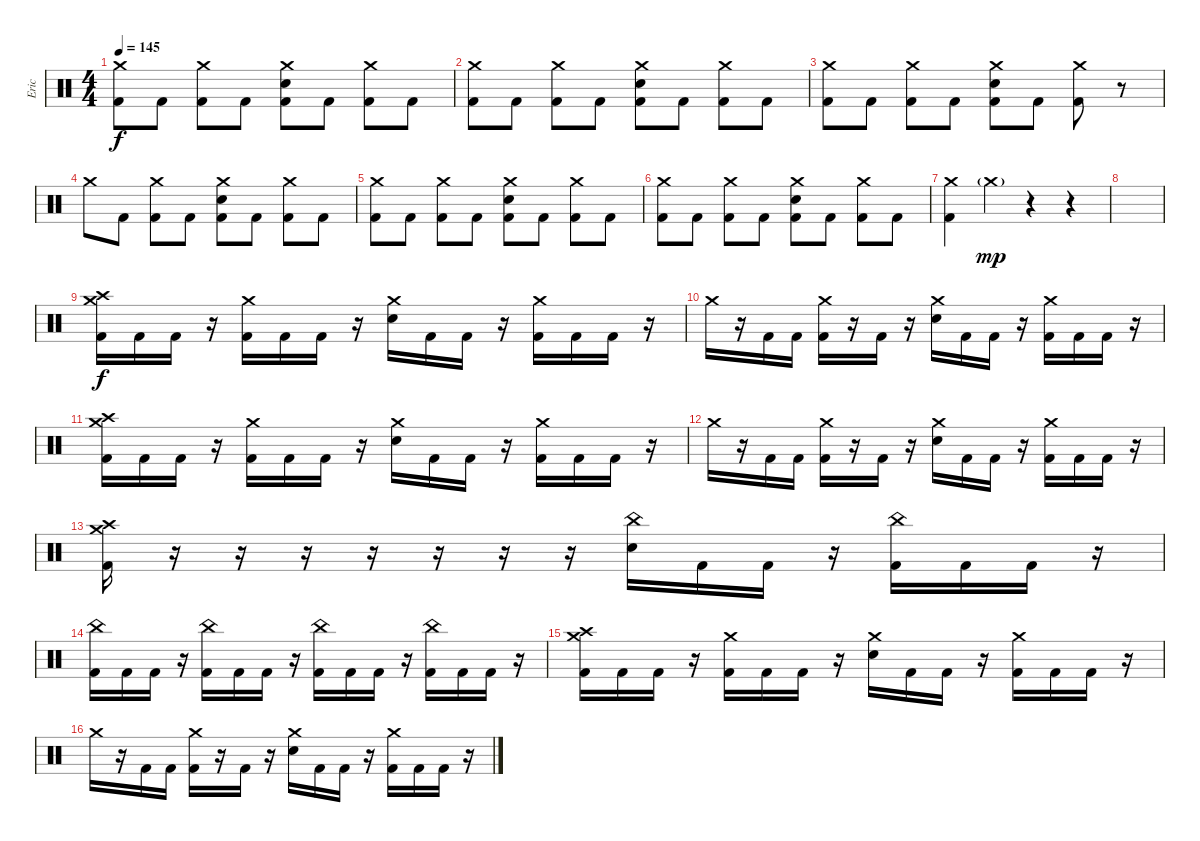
\track ("Eric" "Eric") {instrument percussion}
\staff {score}
\articulation defaults
\ts (4 4)
\tempo 145
\clef neutral
\ks c
("Crash medium (hit)" "Kick (hit) 2").8{dy f} "Kick (hit) 2".8 ("Crash medium (hit)" "Kick (hit) 2").8 "Kick (hit) 2".8 ("Crash medium (hit)" "Electric Snare (hit)" "Kick (hit) 2").8 "Kick (hit) 2".8 ("Crash medium (hit)" "Kick (hit) 2").8 "Kick (hit) 2".8 |
("Crash medium (hit)" "Kick (hit) 2").8 "Kick (hit) 2".8 ("Crash medium (hit)" "Kick (hit) 2").8 "Kick (hit) 2".8 ("Crash medium (hit)" "Electric Snare (hit)" "Kick (hit) 2").8 "Kick (hit) 2".8 ("Crash medium (hit)" "Kick (hit) 2").8 "Kick (hit) 2".8 |
("Crash medium (hit)" "Kick (hit) 2").8 "Kick (hit) 2".8 ("Crash medium (hit)" "Kick (hit) 2").8 "Kick (hit) 2".8 ("Crash medium (hit)" "Electric Snare (hit)" "Kick (hit) 2").8 "Kick (hit) 2".8 ("Crash medium (hit)" "Kick (hit) 2").8 r.8 |
"Crash medium (hit)".8 "Kick (hit) 2".8 ("Crash medium (hit)" "Kick (hit) 2").8 "Kick (hit) 2".8 ("Crash medium (hit)" "Electric Snare (hit)" "Kick (hit) 2").8 "Kick (hit) 2".8 ("Crash medium (hit)" "Kick (hit) 2").8 "Kick (hit) 2".8 |
("Crash medium (hit)" "Kick (hit) 2").8 "Kick (hit) 2".8 ("Crash medium (hit)" "Kick (hit) 2").8 "Kick (hit) 2".8 ("Crash medium (hit)" "Electric Snare (hit)" "Kick (hit) 2").8 "Kick (hit) 2".8 ("Crash medium (hit)" "Kick (hit) 2").8 "Kick (hit) 2".8 |
("Crash medium (hit)" "Kick (hit) 2").8 "Kick (hit) 2".8 ("Crash medium (hit)" "Kick (hit) 2").8 "Kick (hit) 2".8 ("Crash medium (hit)" "Electric Snare (hit)" "Kick (hit) 2").8 "Kick (hit) 2".8 ("Crash medium (hit)" "Kick (hit) 2").8 "Kick (hit) 2".8 |
("Crash medium (hit)" "Kick (hit) 2").4 "Crash medium (hit)"{g}.4{dy mp} r.4 r.4 |
|
("Crash medium (hit)" "Crash high (hit)" "Kick (hit) 2").16{dy f} "Kick (hit) 2".16 "Kick (hit) 2".16 r.16 ("Crash medium (hit)" "Kick (hit) 2").16 "Kick (hit) 2".16 "Kick (hit) 2".16 r.16 ("Crash medium (hit)" "Electric Snare (hit)").16 "Kick (hit) 2".16 "Kick (hit) 2".16 r.16 ("Crash medium (hit)" "Kick (hit) 2").16 "Kick (hit) 2".16 "Kick (hit) 2".16 r.16 |
"Crash medium (hit)".16 r.16 "Kick (hit) 2".16 "Kick (hit) 2".16 ("Crash medium (hit)" "Kick (hit) 2").16 r.16 "Kick (hit) 2".16 r.16 ("Crash medium (hit)" "Electric Snare (hit)").16 "Kick (hit) 2".16 "Kick (hit) 2".16 r.16 ("Crash medium (hit)" "Kick (hit) 2").16 "Kick (hit) 2".16 "Kick (hit) 2".16 r.16 |
("Crash medium (hit)" "Crash high (hit)" "Kick (hit) 2").16 "Kick (hit) 2".16 "Kick (hit) 2".16 r.16 ("Crash medium (hit)" "Kick (hit) 2").16 "Kick (hit) 2".16 "Kick (hit) 2".16 r.16 ("Crash medium (hit)" "Electric Snare (hit)").16 "Kick (hit) 2".16 "Kick (hit) 2".16 r.16 ("Crash medium (hit)" "Kick (hit) 2").16 "Kick (hit) 2".16 "Kick (hit) 2".16 r.16 |
"Crash medium (hit)".16 r.16 "Kick (hit) 2".16 "Kick (hit) 2".16 ("Crash medium (hit)" "Kick (hit) 2").16 r.16 "Kick (hit) 2".16 r.16 ("Crash medium (hit)" "Electric Snare (hit)").16 "Kick (hit) 2".16 "Kick (hit) 2".16 r.16 ("Crash medium (hit)" "Kick (hit) 2").16 "Kick (hit) 2".16 "Kick (hit) 2".16 r.16 |
("Crash high (hit)" "Crash medium (hit)" "Kick (hit) 2").16 r.16 r.16 r.16 r.16 r.16 r.16 r.16 ("China (hit)" "Electric Snare (hit)").16 "Kick (hit) 2".16 "Kick (hit) 2".16 r.16 ("China (hit)" "Kick (hit) 2").16 "Kick (hit) 2".16 "Kick (hit) 2".16 r.16 |
("China (hit)" "Kick (hit) 2").16 "Kick (hit) 2".16 "Kick (hit) 2".16 r.16 ("China (hit)" "Kick (hit) 2").16 "Kick (hit) 2".16 "Kick (hit) 2".16 r.16 ("China (hit)" "Kick (hit) 2").16 "Kick (hit) 2".16 "Kick (hit) 2".16 r.16 ("China (hit)" "Kick (hit) 2").16 "Kick (hit) 2".16 "Kick (hit) 2".16 r.16 |
("Crash medium (hit)" "Crash high (hit)" "Kick (hit) 2").16 "Kick (hit) 2".16 "Kick (hit) 2".16 r.16 ("Crash medium (hit)" "Kick (hit) 2").16 "Kick (hit) 2".16 "Kick (hit) 2".16 r.16 ("Crash medium (hit)" "Electric Snare (hit)").16 "Kick (hit) 2".16 "Kick (hit) 2".16 r.16 ("Crash medium (hit)" "Kick (hit) 2").16 "Kick (hit) 2".16 "Kick (hit) 2".16 r.16 |
"Crash medium (hit)".16 r.16 "Kick (hit) 2".16 "Kick (hit) 2".16 ("Crash medium (hit)" "Kick (hit) 2").16 r.16 "Kick (hit) 2".16 r.16 ("Crash medium (hit)" "Electric Snare (hit)").16 "Kick (hit) 2".16 "Kick (hit) 2".16 r.16 ("Crash medium (hit)" "Kick (hit) 2").16 "Kick (hit) 2".16 "Kick (hit) 2".16 r.16
